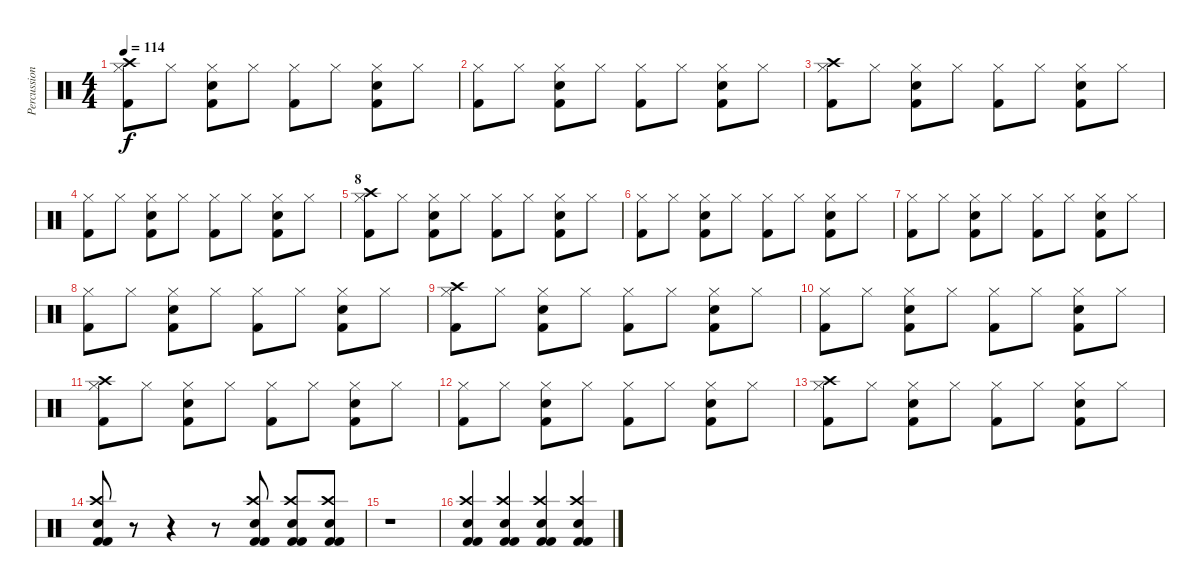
\track ("Percussions" "Percussion") {instrument percussion}
\staff {score}
\articulation defaults
\ts (4 4)
\tempo 114
\clef neutral
\ks c
("Kick (hit) 2" "Hi-Hat (closed)" "Crash high (hit)").8{dy f} "Hi-Hat (closed)".8 ("Kick (hit) 2" "Hi-Hat (closed)" "Snare (hit) 2").8 "Hi-Hat (closed)".8 ("Kick (hit) 2" "Hi-Hat (closed)").8 "Hi-Hat (closed)".8 ("Kick (hit) 2" "Hi-Hat (closed)" "Snare (hit) 2").8 "Hi-Hat (closed)".8 |
("Kick (hit) 2" "Hi-Hat (closed)").8 "Hi-Hat (closed)".8 ("Kick (hit) 2" "Hi-Hat (closed)" "Snare (hit) 2").8 "Hi-Hat (closed)".8 ("Kick (hit) 2" "Hi-Hat (closed)").8 "Hi-Hat (closed)".8 ("Kick (hit) 2" "Hi-Hat (closed)" "Snare (hit) 2").8 "Hi-Hat (closed)".8 |
("Kick (hit) 2" "Hi-Hat (closed)" "Crash high (hit)").8 "Hi-Hat (closed)".8 ("Kick (hit) 2" "Hi-Hat (closed)" "Snare (hit) 2").8 "Hi-Hat (closed)".8 ("Kick (hit) 2" "Hi-Hat (closed)").8 "Hi-Hat (closed)".8 ("Kick (hit) 2" "Hi-Hat (closed)" "Snare (hit) 2").8 "Hi-Hat (closed)".8 |
("Kick (hit) 2" "Hi-Hat (closed)").8 "Hi-Hat (closed)".8 ("Kick (hit) 2" "Hi-Hat (closed)" "Snare (hit) 2").8 "Hi-Hat (closed)".8 ("Kick (hit) 2" "Hi-Hat (closed)").8 "Hi-Hat (closed)".8 ("Kick (hit) 2" "Hi-Hat (closed)" "Snare (hit) 2").8 "Hi-Hat (closed)".8 |
\section ("" "8")
("Kick (hit) 2" "Hi-Hat (closed)" "Crash high (hit)").8 "Hi-Hat (closed)".8 ("Kick (hit) 2" "Hi-Hat (closed)" "Snare (hit) 2").8 "Hi-Hat (closed)".8 ("Kick (hit) 2" "Hi-Hat (closed)").8 "Hi-Hat (closed)".8 ("Kick (hit) 2" "Hi-Hat (closed)" "Snare (hit) 2").8 "Hi-Hat (closed)".8 |
("Kick (hit) 2" "Hi-Hat (closed)").8 "Hi-Hat (closed)".8 ("Kick (hit) 2" "Hi-Hat (closed)" "Snare (hit) 2").8 "Hi-Hat (closed)".8 ("Kick (hit) 2" "Hi-Hat (closed)").8 "Hi-Hat (closed)".8 ("Kick (hit) 2" "Hi-Hat (closed)" "Snare (hit) 2").8 "Hi-Hat (closed)".8 |
("Kick (hit) 2" "Hi-Hat (closed)").8 "Hi-Hat (closed)".8 ("Kick (hit) 2" "Hi-Hat (closed)" "Snare (hit) 2").8 "Hi-Hat (closed)".8 ("Kick (hit) 2" "Hi-Hat (closed)").8 "Hi-Hat (closed)".8 ("Kick (hit) 2" "Hi-Hat (closed)" "Snare (hit) 2").8 "Hi-Hat (closed)".8 |
("Kick (hit) 2" "Hi-Hat (closed)").8 "Hi-Hat (closed)".8 ("Kick (hit) 2" "Hi-Hat (closed)" "Snare (hit) 2").8 "Hi-Hat (closed)".8 ("Kick (hit) 2" "Hi-Hat (closed)").8 "Hi-Hat (closed)".8 ("Kick (hit) 2" "Hi-Hat (closed)" "Snare (hit) 2").8 "Hi-Hat (closed)".8 |
("Kick (hit) 2" "Hi-Hat (closed)" "Crash high (hit)").8 "Hi-Hat (closed)".8 ("Kick (hit) 2" "Hi-Hat (closed)" "Snare (hit) 2").8 "Hi-Hat (closed)".8 ("Kick (hit) 2" "Hi-Hat (closed)").8 "Hi-Hat (closed)".8 ("Kick (hit) 2" "Hi-Hat (closed)" "Snare (hit) 2").8 "Hi-Hat (closed)".8 |
("Kick (hit) 2" "Hi-Hat (closed)").8 "Hi-Hat (closed)".8 ("Kick (hit) 2" "Hi-Hat (closed)" "Snare (hit) 2").8 "Hi-Hat (closed)".8 ("Kick (hit) 2" "Hi-Hat (closed)").8 "Hi-Hat (closed)".8 ("Kick (hit) 2" "Hi-Hat (closed)" "Snare (hit) 2").8 "Hi-Hat (closed)".8 |
("Kick (hit) 2" "Hi-Hat (closed)" "Crash high (hit)").8 "Hi-Hat (closed)".8 ("Kick (hit) 2" "Hi-Hat (closed)" "Snare (hit) 2").8 "Hi-Hat (closed)".8 ("Kick (hit) 2" "Hi-Hat (closed)").8 "Hi-Hat (closed)".8 ("Kick (hit) 2" "Hi-Hat (closed)" "Snare (hit) 2").8 "Hi-Hat (closed)".8 |
("Kick (hit) 2" "Hi-Hat (closed)").8 "Hi-Hat (closed)".8 ("Kick (hit) 2" "Hi-Hat (closed)" "Snare (hit) 2").8 "Hi-Hat (closed)".8 ("Kick (hit) 2" "Hi-Hat (closed)").8 "Hi-Hat (closed)".8 ("Kick (hit) 2" "Hi-Hat (closed)" "Snare (hit) 2").8 "Hi-Hat (closed)".8 |
("Kick (hit) 2" "Hi-Hat (closed)" "Crash high (hit)").8 "Hi-Hat (closed)".8 ("Kick (hit) 2" "Hi-Hat (closed)" "Snare (hit) 2").8 "Hi-Hat (closed)".8 ("Kick (hit) 2" "Hi-Hat (closed)").8 "Hi-Hat (closed)".8 ("Kick (hit) 2" "Hi-Hat (closed)" "Snare (hit) 2").8 "Hi-Hat (closed)".8 |
("Crash high (hit)" "Snare (hit) 2" "Kick (hit) 2" "Kick (hit) 2").8 r.8 r.4 r.8 ("Crash high (hit)" "Snare (hit) 2" "Kick (hit) 2" "Kick (hit) 2").8 ("Crash high (hit)" "Snare (hit) 2" "Kick (hit) 2" "Kick (hit) 2").8 ("Crash high (hit)" "Snare (hit) 2" "Kick (hit) 2" "Kick (hit) 2").8 |
r.1 |
("Crash high (hit)" "Snare (hit) 2" "Kick (hit) 2" "Kick (hit) 2").4 ("Crash high (hit)" "Snare (hit) 2" "Kick (hit) 2" "Kick (hit) 2").4 ("Crash high (hit)" "Snare (hit) 2" "Kick (hit) 2" "Kick (hit) 2").4 ("Crash high (hit)" "Snare (hit) 2" "Kick (hit) 2" "Kick (hit) 2").4
